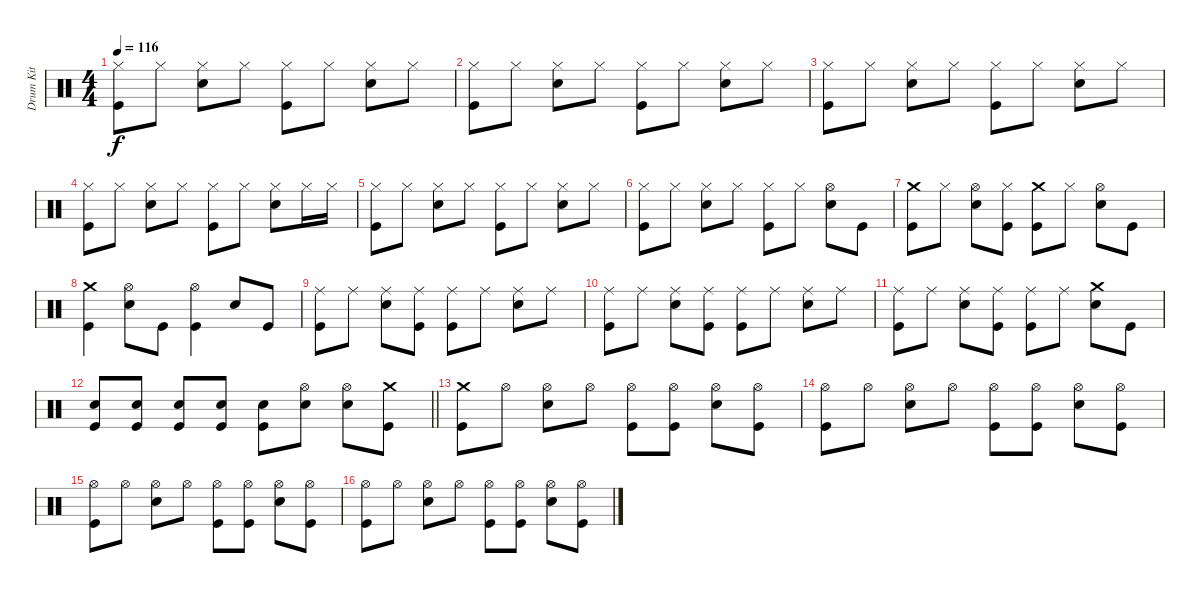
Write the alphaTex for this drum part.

\track ("Drum Kit" "Drum Kit") {instrument percussion}
\staff {score}
\articulation defaults
\ts (4 4)
\tempo 116
\clef neutral
\ks c
("Hi-Hat (closed)" "Kick (hit)").8{dy f} "Hi-Hat (closed)".8 ("Hi-Hat (closed)" "Snare (hit) 2").8 "Hi-Hat (closed)".8 ("Hi-Hat (closed)" "Kick (hit)").8 "Hi-Hat (closed)".8 ("Hi-Hat (closed)" "Snare (hit) 2").8 "Hi-Hat (closed)".8 |
("Hi-Hat (closed)" "Kick (hit)").8 "Hi-Hat (closed)".8 ("Hi-Hat (closed)" "Snare (hit) 2").8 "Hi-Hat (closed)".8 ("Hi-Hat (closed)" "Kick (hit)").8 "Hi-Hat (closed)".8 ("Hi-Hat (closed)" "Snare (hit) 2").8 "Hi-Hat (closed)".8 |
("Hi-Hat (closed)" "Kick (hit)").8 "Hi-Hat (closed)".8 ("Hi-Hat (closed)" "Snare (hit) 2").8 "Hi-Hat (closed)".8 ("Hi-Hat (closed)" "Kick (hit)").8 "Hi-Hat (closed)".8 ("Hi-Hat (closed)" "Snare (hit) 2").8 "Hi-Hat (closed)".8 |
("Hi-Hat (closed)" "Kick (hit)").8 "Hi-Hat (closed)".8 ("Hi-Hat (closed)" "Snare (hit) 2").8 "Hi-Hat (closed)".8 ("Hi-Hat (closed)" "Kick (hit)").8 "Hi-Hat (closed)".8 ("Hi-Hat (closed)" "Snare (hit) 2").8 "Hi-Hat (closed)".16 "Hi-Hat (closed)".16 |
("Hi-Hat (closed)" "Kick (hit)").8 "Hi-Hat (closed)".8 ("Hi-Hat (closed)" "Snare (hit) 2").8 "Hi-Hat (closed)".8 ("Hi-Hat (closed)" "Kick (hit)").8 "Hi-Hat (closed)".8 ("Hi-Hat (closed)" "Snare (hit) 2").8 "Hi-Hat (closed)".8 |
("Hi-Hat (closed)" "Kick (hit)").8 "Hi-Hat (closed)".8 ("Hi-Hat (closed)" "Snare (hit) 2").8 "Hi-Hat (closed)".8 ("Hi-Hat (closed)" "Kick (hit)").8 "Hi-Hat (closed)".8 ("Hi-Hat (open)" "Snare (hit) 2").8 "Kick (hit)".8 |
("Crash medium (hit)" "Kick (hit)").8 "Hi-Hat (closed)".8 ("Hi-Hat (open)" "Snare (hit) 2").8 ("Hi-Hat (closed)" "Kick (hit)").8 ("Crash medium (hit)" "Kick (hit)").8 "Hi-Hat (closed)".8 ("Hi-Hat (open)" "Snare (hit) 2").8 "Kick (hit)".8 |
("Crash medium (hit)" "Kick (hit)").4 ("Hi-Hat (open)" "Snare (hit) 2").8 "Kick (hit)".8 ("Hi-Hat (open)" "Kick (hit)").4 "Snare (hit) 2".8 "Kick (hit)".8 |
("Ride (middle)" "Kick (hit)").8 "Ride (middle)".8 ("Ride (middle)" "Snare (hit) 2").8 ("Ride (middle)" "Kick (hit)").8 ("Ride (middle)" "Kick (hit)").8 "Ride (middle)".8 ("Ride (middle)" "Snare (hit) 2").8 "Ride (middle)".8 |
("Ride (middle)" "Kick (hit)").8 "Ride (middle)".8 ("Ride (middle)" "Snare (hit) 2").8 ("Ride (middle)" "Kick (hit)").8 ("Ride (middle)" "Kick (hit)").8 "Ride (middle)".8 ("Ride (middle)" "Snare (hit) 2").8 "Ride (middle)".8 |
("Ride (middle)" "Kick (hit)").8 "Ride (middle)".8 ("Ride (middle)" "Snare (hit) 2").8 ("Ride (middle)" "Kick (hit)").8 ("Ride (middle)" "Kick (hit)").8 "Ride (middle)".8 ("Crash medium (hit)" "Snare (hit) 2").8 "Kick (hit)".8 |
\barLineRight lightlight
("Snare (hit) 2" "Kick (hit)").8 ("Snare (hit) 2" "Kick (hit)").8 ("Snare (hit) 2" "Kick (hit)").8 ("Snare (hit) 2" "Kick (hit)").8 ("Snare (hit) 2" "Kick (hit)").8 ("Hi-Hat (open)" "Snare (hit) 2").8 ("Hi-Hat (open)" "Snare (hit) 2").8 ("Crash medium (hit)" "Kick (hit)").8 |
("Crash medium (hit)" "Kick (hit)").8 "Hi-Hat (open)".8 ("Hi-Hat (open)" "Snare (hit) 2").8 "Hi-Hat (open)".8 ("Hi-Hat (open)" "Kick (hit)").8 ("Hi-Hat (open)" "Kick (hit)").8 ("Hi-Hat (open)" "Snare (hit) 2").8 ("Hi-Hat (open)" "Kick (hit)").8 |
("Hi-Hat (open)" "Kick (hit)").8 "Hi-Hat (open)".8 ("Hi-Hat (open)" "Snare (hit) 2").8 "Hi-Hat (open)".8 ("Hi-Hat (open)" "Kick (hit)").8 ("Hi-Hat (open)" "Kick (hit)").8 ("Hi-Hat (open)" "Snare (hit) 2").8 ("Hi-Hat (open)" "Kick (hit)").8 |
("Hi-Hat (open)" "Kick (hit)").8 "Hi-Hat (open)".8 ("Hi-Hat (open)" "Snare (hit) 2").8 "Hi-Hat (open)".8 ("Hi-Hat (open)" "Kick (hit)").8 ("Hi-Hat (open)" "Kick (hit)").8 ("Hi-Hat (open)" "Snare (hit) 2").8 ("Hi-Hat (open)" "Kick (hit)").8 |
("Hi-Hat (open)" "Kick (hit)").8 "Hi-Hat (open)".8 ("Hi-Hat (open)" "Snare (hit) 2").8 "Hi-Hat (open)".8 ("Hi-Hat (open)" "Kick (hit)").8 ("Hi-Hat (open)" "Kick (hit)").8 ("Hi-Hat (open)" "Snare (hit) 2").8 ("Hi-Hat (open)" "Kick (hit)").8
